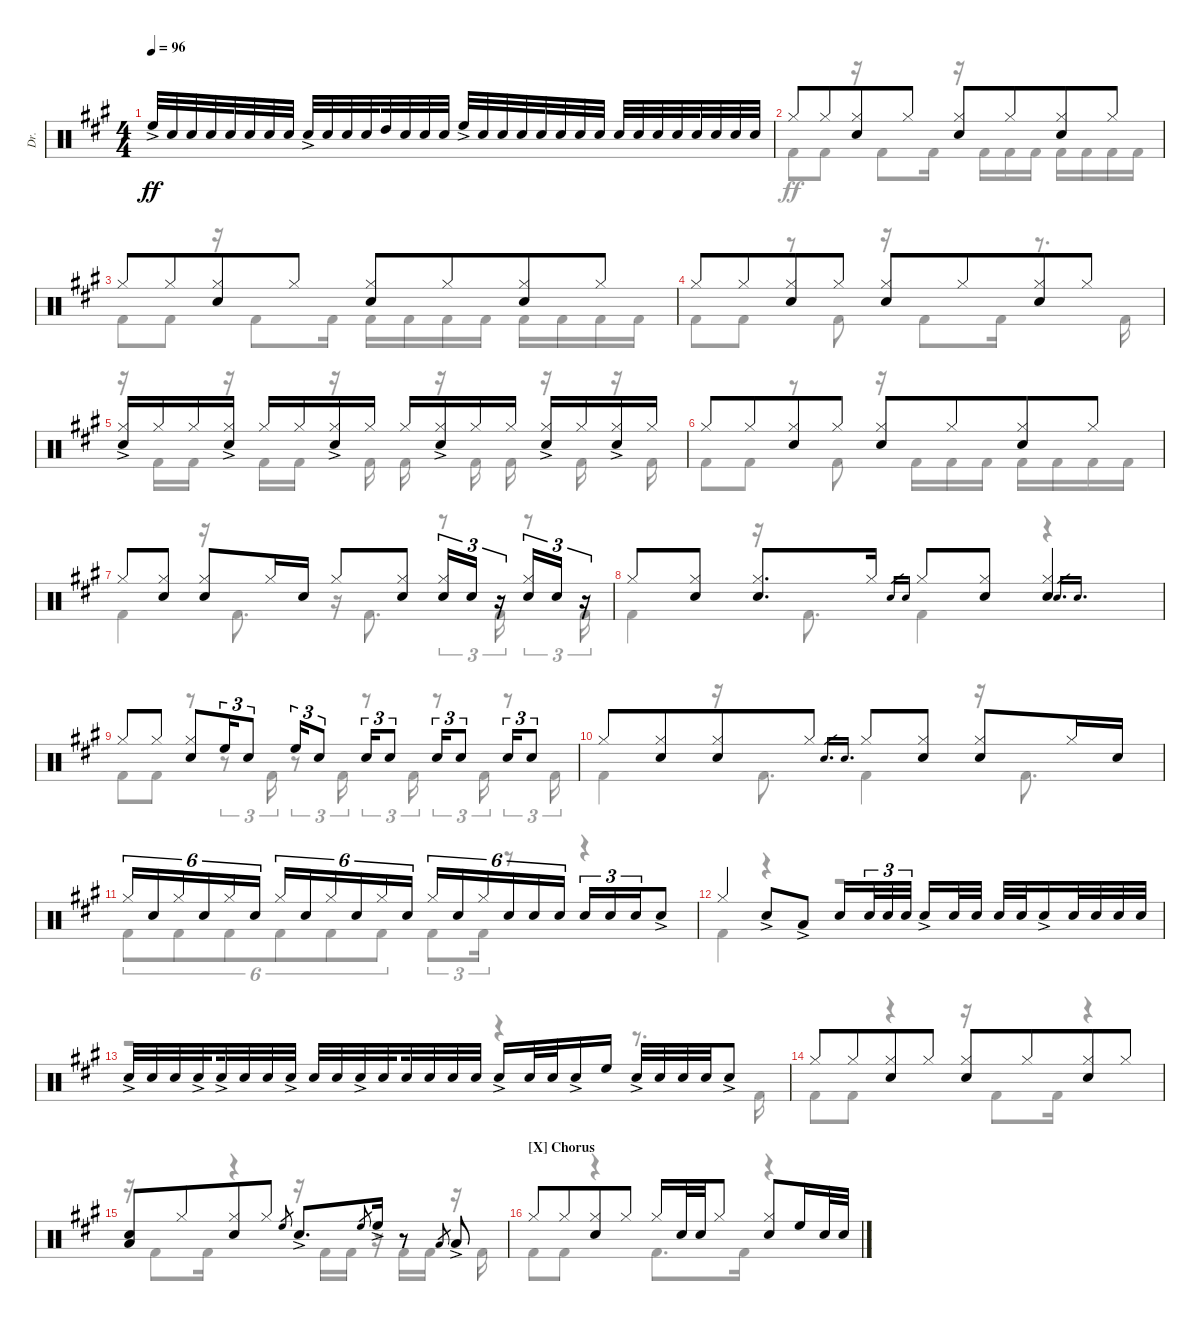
\defaultSystemsLayout 4
\bracketExtendMode groupsimilarinstruments
\otherSystemsTrackNameOrientation horizontal
\track ("Drums" "Dr.") {instrument percussion}
\staff {score}
\articulation defaults
\voice
\ts (4 4)
\tempo 96
\clef neutral
\ks a "High Floor Tom (hit)"{ac acc forcenatural}.32{dy ff beam invert} "Snare (hit) 2"{acc forcenatural}.32 "Snare (hit) 2"{acc forcenatural}.32 "Snare (hit) 2"{acc forcenatural}.32{beam splitsecondary} "Snare (hit) 2"{acc forcenatural}.32 "Snare (hit) 2"{acc forcenatural}.32 "Snare (hit) 2"{acc forcenatural}.32 "Snare (hit) 2"{acc forcenatural}.32 "Snare (hit) 2"{ac acc forcenatural}.32{beam invert} "Snare (hit) 2"{acc forcenatural}.32 "Snare (hit) 2"{acc forcenatural}.32 "Snare (hit) 2"{acc forcenatural}.32{beam splitsecondary} "High Tom (hit)"{acc forcenatural}.32 "Snare (hit) 2"{acc forcenatural}.32 "Snare (hit) 2"{acc forcenatural}.32 "Snare (hit) 2"{acc forcenatural}.32 "High Floor Tom (hit)"{ac acc forcenatural}.32{beam invert} "Snare (hit) 2"{acc forcenatural}.32 "Snare (hit) 2"{acc forcenatural}.32 "Snare (hit) 2"{acc forcenatural}.32{beam splitsecondary} "Snare (hit) 2"{acc forcenatural}.32 "Snare (hit) 2"{acc forcenatural}.32 "Snare (hit) 2"{acc forcenatural}.32 "Snare (hit) 2"{acc forcenatural}.32 "Snare (hit) 2"{acc forcenatural}.32{beam invert} "Snare (hit) 2"{acc forcenatural}.32 "Snare (hit) 2"{acc forcenatural}.32 "Snare (hit) 2"{acc forcenatural}.32{beam splitsecondary} "Snare (hit) 2"{acc forcenatural}.32 "Snare (hit) 2"{acc forcenatural}.32 "Snare (hit) 2"{acc forcenatural}.32 "Snare (hit) 2"{acc forcenatural}.32
|
"Hi-Hat (closed)"{acc forcenatural}.8 "Hi-Hat (closed)"{acc forcenatural}.8{beam merge} ("Hi-Hat (closed)"{acc forcenatural} "Snare (hit) 2"{acc forcenatural}).8 "Hi-Hat (closed)"{acc forcenatural}.8 ("Hi-Hat (closed)"{acc forcenatural} "Snare (hit) 2"{acc forcenatural}).8 "Hi-Hat (closed)"{acc forcenatural}.8{beam merge} ("Hi-Hat (closed)"{acc forcenatural} "Snare (hit) 2"{acc forcenatural}).8 "Hi-Hat (closed)"{acc forcenatural}.8 |
"Hi-Hat (closed)"{acc forcenatural}.8 "Hi-Hat (closed)"{acc forcenatural}.8{beam merge} ("Hi-Hat (closed)"{acc forcenatural} "Snare (hit) 2"{acc forcenatural}).8 "Hi-Hat (closed)"{acc forcenatural}.8 ("Hi-Hat (closed)"{acc forcenatural} "Snare (hit) 2"{acc forcenatural}).8 "Hi-Hat (closed)"{acc forcenatural}.8{beam merge} ("Hi-Hat (closed)"{acc forcenatural} "Snare (hit) 2"{acc forcenatural}).8 "Hi-Hat (closed)"{acc forcenatural}.8 |
"Hi-Hat (closed)"{acc forcenatural}.8 "Hi-Hat (closed)"{acc forcenatural}.8{beam merge} ("Hi-Hat (closed)"{acc forcenatural} "Snare (hit) 2"{acc forcenatural}).8 "Hi-Hat (closed)"{acc forcenatural}.8 ("Hi-Hat (closed)"{acc forcenatural} "Snare (hit) 2"{acc forcenatural}).8 "Hi-Hat (closed)"{acc forcenatural}.8{beam merge} ("Hi-Hat (closed)"{acc forcenatural} "Snare (hit) 2"{acc forcenatural}).8 "Hi-Hat (closed)"{acc forcenatural}.8 |
("Snare (hit) 2"{ac acc forcenatural} "Hi-Hat (closed)"{acc forcenatural}).16 "Hi-Hat (closed)"{acc forcenatural}.16 "Hi-Hat (closed)"{acc forcenatural}.16 ("Hi-Hat (closed)"{acc forcenatural} "Snare (hit) 2"{ac acc forcenatural}).16 "Hi-Hat (closed)"{acc forcenatural}.16 "Hi-Hat (closed)"{acc forcenatural}.16 ("Hi-Hat (closed)"{acc forcenatural} "Snare (hit) 2"{ac acc forcenatural}).16 "Hi-Hat (closed)"{acc forcenatural}.16 "Hi-Hat (closed)"{acc forcenatural}.16 ("Hi-Hat (closed)"{acc forcenatural} "Snare (hit) 2"{ac acc forcenatural}).16 "Hi-Hat (closed)"{acc forcenatural}.16 "Hi-Hat (closed)"{acc forcenatural}.16 ("Hi-Hat (closed)"{acc forcenatural} "Snare (hit) 2"{ac acc forcenatural}).16 "Hi-Hat (closed)"{acc forcenatural}.16 ("Hi-Hat (closed)"{acc forcenatural} "Snare (hit) 2"{ac acc forcenatural}).16 "Hi-Hat (closed)"{acc forcenatural}.16 |
"Hi-Hat (closed)"{acc forcenatural}.8 "Hi-Hat (closed)"{acc forcenatural}.8{beam merge} ("Hi-Hat (closed)"{acc forcenatural} "Snare (hit) 2"{acc forcenatural}).8 "Hi-Hat (closed)"{acc forcenatural}.8 ("Hi-Hat (closed)"{acc forcenatural} "Snare (hit) 2"{acc forcenatural}).8 "Hi-Hat (closed)"{acc forcenatural}.8{beam merge} ("Hi-Hat (closed)"{acc forcenatural} "Snare (hit) 2"{acc forcenatural}).8 "Hi-Hat (closed)"{acc forcenatural}.8 |
"Hi-Hat (closed)"{acc forcenatural}.8{beam merge} ("Hi-Hat (closed)"{acc forcenatural} "Snare (hit) 2"{acc forcenatural}).8 ("Hi-Hat (closed)"{acc forcenatural} "Snare (hit) 2"{acc forcenatural}).8 "Hi-Hat (closed)"{acc forcenatural}.16 "Snare (hit) 2"{acc forcenatural}.16 "Hi-Hat (closed)"{acc forcenatural}.8{beam merge} ("Hi-Hat (closed)"{acc forcenatural} "Snare (hit) 2"{acc forcenatural}).8 ("Hi-Hat (closed)"{acc forcenatural} "Snare (hit) 2"{acc forcenatural}).16{tu (3 2)} "Snare (hit) 2"{acc forcenatural}.16{tu (3 2)} r.16{tu (3 2)} ("Hi-Hat (closed)"{acc forcenatural} "Snare (hit) 2"{acc forcenatural}).16{tu (3 2)} "Snare (hit) 2"{acc forcenatural}.16{tu (3 2)} r.16{tu (3 2)} |
"Hi-Hat (closed)"{acc forcenatural}.8 ("Hi-Hat (closed)"{acc forcenatural} "Snare (hit) 2"{acc forcenatural}).8 ("Hi-Hat (closed)"{acc forcenatural} "Snare (hit) 2"{acc forcenatural}).8{d} "Hi-Hat (closed)"{acc forcenatural}.16 "Snare (hit) 2"{acc forcenatural}.16{gr} "Snare (hit) 2"{acc forcenatural}.16{gr} "Hi-Hat (closed)"{acc forcenatural}.8 ("Hi-Hat (closed)"{acc forcenatural} "Snare (hit) 2"{acc forcenatural}).8 ("Hi-Hat (closed)"{acc forcenatural} "Snare (hit) 2"{acc forcenatural}).4 "Snare (hit) 2"{acc forcenatural}.16{d gr} "Snare (hit) 2"{acc forcenatural}.16{d gr} |
"Hi-Hat (closed)"{acc forcenatural}.8 "Hi-Hat (closed)"{acc forcenatural}.8 ("Hi-Hat (closed)"{acc forcenatural} "Snare (hit) 2"{acc forcenatural}).8{beam merge} "High Floor Tom (hit)"{acc forcenatural}.16{tu (3 2)} "Snare (hit) 2"{acc forcenatural}.8{tu (3 2)} "High Floor Tom (hit)"{acc forcenatural}.16{tu (3 2)} "Snare (hit) 2"{acc forcenatural}.8{tu (3 2)} "Snare (hit) 2"{acc forcenatural}.16{tu (3 2)} "Snare (hit) 2"{acc forcenatural}.8{tu (3 2)} "Snare (hit) 2"{acc forcenatural}.16{tu (3 2)} "Snare (hit) 2"{acc forcenatural}.8{tu (3 2)} "Snare (hit) 2"{acc forcenatural}.16{tu (3 2)} "Snare (hit) 2"{acc forcenatural}.8{tu (3 2)} |
"Hi-Hat (closed)"{acc forcenatural}.8 ("Hi-Hat (closed)"{acc forcenatural} "Snare (hit) 2"{acc forcenatural}).8{beam merge} ("Hi-Hat (closed)"{acc forcenatural} "Snare (hit) 2"{acc forcenatural}).8 "Hi-Hat (closed)"{acc forcenatural}.8 "Snare (hit) 2"{acc forcenatural}.16{d gr} "Snare (hit) 2"{acc forcenatural}.16{d gr} "Hi-Hat (closed)"{acc forcenatural}.8 ("Hi-Hat (closed)"{acc forcenatural} "Snare (hit) 2"{acc forcenatural}).8 ("Hi-Hat (closed)"{acc forcenatural} "Snare (hit) 2"{acc forcenatural}).8 "Hi-Hat (closed)"{acc forcenatural}.16 "Snare (hit) 2"{acc forcenatural}.16 |
"Hi-Hat (closed)"{acc forcenatural}.16{tu (6 4)} "Snare (hit) 2"{acc forcenatural}.16{tu (6 4)} "Hi-Hat (closed)"{acc forcenatural}.16{tu (6 4)} "Snare (hit) 2"{acc forcenatural}.16{tu (6 4)} "Hi-Hat (closed)"{acc forcenatural}.16{tu (6 4)} "Snare (hit) 2"{acc forcenatural}.16{tu (6 4)} "Hi-Hat (closed)"{acc forcenatural}.16{tu (6 4)} "Snare (hit) 2"{acc forcenatural}.16{tu (6 4)} "Hi-Hat (closed)"{acc forcenatural}.16{tu (6 4)} "Snare (hit) 2"{acc forcenatural}.16{tu (6 4)} "Hi-Hat (closed)"{acc forcenatural}.16{tu (6 4)} "Snare (hit) 2"{acc forcenatural}.16{tu (6 4)} "Hi-Hat (closed)"{acc forcenatural}.16{tu (6 4)} "Snare (hit) 2"{acc forcenatural}.16{tu (6 4)} "Hi-Hat (closed)"{acc forcenatural}.16{tu (6 4)} "Snare (hit) 2"{acc forcenatural}.16{tu (6 4)} "Snare (hit) 2"{acc forcenatural}.16{tu (6 4)} "Snare (hit) 2"{acc forcenatural}.16{tu (6 4)} "Snare (hit) 2"{acc forcenatural}.16{tu (3 2)} "Snare (hit) 2"{acc forcenatural}.16{tu (3 2)} "Snare (hit) 2"{acc forcenatural}.16{tu (3 2) beam merge} "Snare (hit) 2"{ac acc forcenatural}.8 |
"Hi-Hat (closed)"{acc forcenatural}.4 "Snare (hit) 2"{ac acc forcenatural}.8 "Low Tom (hit)"{ac acc forcenatural}.8 "Snare (hit) 2"{acc forcenatural}.16{beam merge} "Snare (hit) 2"{acc forcenatural}.32{tu (3 2)} "Snare (hit) 2"{acc forcenatural}.32{tu (3 2)} "Snare (hit) 2"{acc forcenatural}.32{tu (3 2)} "Snare (hit) 2"{ac acc forcenatural}.16 "Snare (hit) 2"{acc forcenatural}.32 "Snare (hit) 2"{acc forcenatural}.32 "Snare (hit) 2"{acc forcenatural}.32 "Snare (hit) 2"{acc forcenatural}.32 "Snare (hit) 2"{ac acc forcenatural}.16 "Snare (hit) 2"{acc forcenatural}.32 "Snare (hit) 2"{acc forcenatural}.32 "Snare (hit) 2"{acc forcenatural}.32 "Snare (hit) 2"{acc forcenatural}.32 |
"Snare (hit) 2"{ac acc forcenatural}.32 "Snare (hit) 2"{acc forcenatural}.32 "Snare (hit) 2"{acc forcenatural}.32 "Snare (hit) 2"{ac acc forcenatural}.32{beam splitsecondary} "Snare (hit) 2"{ac acc forcenatural}.32 "Snare (hit) 2"{acc forcenatural}.32 "Snare (hit) 2"{acc forcenatural}.32 "Snare (hit) 2"{ac acc forcenatural}.32 "Snare (hit) 2"{acc forcenatural}.32 "Snare (hit) 2"{acc forcenatural}.32 "Snare (hit) 2"{ac acc forcenatural}.32 "Snare (hit) 2"{acc forcenatural}.32{beam splitsecondary} "Snare (hit) 2"{acc forcenatural}.32 "Snare (hit) 2"{acc forcenatural}.32 "Snare (hit) 2"{acc forcenatural}.32 "Snare (hit) 2"{acc forcenatural}.32 "Snare (hit) 2"{ac acc forcenatural}.16 "Snare (hit) 2"{acc forcenatural}.32 "Snare (hit) 2"{acc forcenatural}.32 "Snare (hit) 2"{ac acc forcenatural}.16 "High Floor Tom (hit)"{acc forcenatural}.16 "Snare (hit) 2"{ac acc forcenatural}.32 "Snare (hit) 2"{acc forcenatural}.32 "Snare (hit) 2"{acc forcenatural}.32 "Snare (hit) 2"{acc forcenatural}.32 "Snare (hit) 2"{ac acc forcenatural}.8 |
"Hi-Hat (closed)"{acc forcenatural}.8 "Hi-Hat (closed)"{acc forcenatural}.8{beam merge} ("Hi-Hat (closed)"{acc forcenatural} "Snare (hit) 2"{acc forcenatural}).8 "Hi-Hat (closed)"{acc forcenatural}.8 ("Hi-Hat (closed)"{acc forcenatural} "Snare (hit) 2"{acc forcenatural}).8 "Hi-Hat (closed)"{acc forcenatural}.8{beam merge} ("Hi-Hat (closed)"{acc forcenatural} "Snare (hit) 2"{acc forcenatural}).8 "Hi-Hat (closed)"{acc forcenatural}.8 |
("Snare (hit) 2"{acc forcenatural} "Low Tom (hit)"{acc forcenatural}).8 "Hi-Hat (closed)"{acc forcenatural}.8{beam merge} ("Hi-Hat (closed)"{acc forcenatural} "Snare (hit) 2"{acc forcenatural}).8 "Hi-Hat (closed)"{acc forcenatural}.8 "High Floor Tom (hit)"{acc forcenatural}.8{gr} "Snare (hit) 2"{ac acc forcenatural}.8{d} "High Floor Tom (hit)"{acc forcenatural}.8{gr} "High Floor Tom (hit)"{ac acc forcenatural}.16 r.8 "Low Tom (hit)"{acc forcenatural}.8{gr} "Low Tom (hit)"{ac acc forcenatural}.8 |
\section ("X" "Chorus")
"Hi-Hat (closed)"{acc forcenatural}.8 "Hi-Hat (closed)"{acc forcenatural}.8{beam merge} ("Hi-Hat (closed)"{acc forcenatural} "Snare (hit) 2"{acc forcenatural}).8 "Hi-Hat (closed)"{acc forcenatural}.8 "Hi-Hat (closed)"{acc forcenatural}.16 "Snare (hit) 2"{acc forcenatural}.32 "Snare (hit) 2"{acc forcenatural}.32 "Hi-Hat (closed)"{acc forcenatural}.8 ("Hi-Hat (closed)"{acc forcenatural} "Snare (hit) 2"{acc forcenatural}).8 "High Floor Tom (hit)"{acc forcenatural}.16 "Snare (hit) 2"{acc forcenatural}.32 "Snare (hit) 2"{acc forcenatural}.32
\voice
\clef neutral
\ottava regular
\simile none
\ks a
|
"Kick (hit) 2"{acc forcenatural}.8 "Kick (hit) 2"{acc forcenatural}.8 r.16 "Kick (hit) 2"{acc forcenatural}.8 "Kick (hit) 2"{acc forcenatural}.16 r.16 "Kick (hit) 2"{acc forcenatural}.16 "Kick (hit) 2"{acc forcenatural}.16 "Kick (hit) 2"{acc forcenatural}.16 "Kick (hit) 2"{acc forcenatural}.16 "Kick (hit) 2"{acc forcenatural}.16 "Kick (hit) 2"{acc forcenatural}.16 "Kick (hit) 2"{acc forcenatural}.16 |
"Kick (hit) 2"{acc forcenatural}.8 "Kick (hit) 2"{acc forcenatural}.8 r.16 "Kick (hit) 2"{acc forcenatural}.8 "Kick (hit) 2"{acc forcenatural}.16 "Kick (hit) 2"{acc forcenatural}.16 "Kick (hit) 2"{acc forcenatural}.16 "Kick (hit) 2"{acc forcenatural}.16 "Kick (hit) 2"{acc forcenatural}.16 "Kick (hit) 2"{acc forcenatural}.16 "Kick (hit) 2"{acc forcenatural}.16 "Kick (hit) 2"{acc forcenatural}.16 "Kick (hit) 2"{acc forcenatural}.16 |
"Kick (hit) 2"{acc forcenatural}.8 "Kick (hit) 2"{acc forcenatural}.8 r.8 "Kick (hit) 2"{acc forcenatural}.8 r.16 "Kick (hit) 2"{acc forcenatural}.8 "Kick (hit) 2"{acc forcenatural}.16 r.8{d} "Kick (hit) 2"{acc forcenatural}.16 |
r.16 "Kick (hit) 2"{acc forcenatural}.16 "Kick (hit) 2"{acc forcenatural}.16 r.16 "Kick (hit) 2"{acc forcenatural}.16 "Kick (hit) 2"{acc forcenatural}.16{beam split} r.16{beam split} "Kick (hit) 2"{acc forcenatural}.16{beam split} "Kick (hit) 2"{acc forcenatural}.16{beam split} r.16{beam split} "Kick (hit) 2"{acc forcenatural}.16{beam split} "Kick (hit) 2"{acc forcenatural}.16{beam split} r.16{beam split} "Kick (hit) 2"{acc forcenatural}.16{beam split} r.16{beam split} "Kick (hit) 2"{acc forcenatural}.16{beam split} |
"Kick (hit) 2"{acc forcenatural}.8 "Kick (hit) 2"{acc forcenatural}.8 r.8 "Kick (hit) 2"{acc forcenatural}.8 r.16 "Kick (hit) 2"{acc forcenatural}.16 "Kick (hit) 2"{acc forcenatural}.16 "Kick (hit) 2"{acc forcenatural}.16 "Kick (hit) 2"{acc forcenatural}.16 "Kick (hit) 2"{acc forcenatural}.16 "Kick (hit) 2"{acc forcenatural}.16 "Kick (hit) 2"{acc forcenatural}.16 |
"Kick (hit) 2"{acc forcenatural}.4 r.16 "Kick (hit) 2"{acc forcenatural}.8{d} r.16 "Kick (hit) 2"{acc forcenatural}.8{d} r.8{tu (3 2)} "Kick (hit) 2"{acc forcenatural}.16{tu (3 2)} r.8{tu (3 2)} "Kick (hit) 2"{acc forcenatural}.16{tu (3 2)} |
"Kick (hit) 2"{acc forcenatural}.4 r.16 "Kick (hit) 2"{acc forcenatural}.8{d} "Kick (hit) 2"{acc forcenatural}.4 r.4 |
"Kick (hit) 2"{acc forcenatural}.8 "Kick (hit) 2"{acc forcenatural}.8 r.8 r.8{tu (3 2)} "Kick (hit) 2"{acc forcenatural}.16{tu (3 2)} r.8{tu (3 2)} "Kick (hit) 2"{acc forcenatural}.16{tu (3 2)} r.8{tu (3 2)} "Kick (hit) 2"{acc forcenatural}.16{tu (3 2)} r.8{tu (3 2)} "Kick (hit) 2"{acc forcenatural}.16{tu (3 2)} r.8{tu (3 2)} "Kick (hit) 2"{acc forcenatural}.16{tu (3 2)} |
"Kick (hit) 2"{acc forcenatural}.4 r.16 "Kick (hit) 2"{acc forcenatural}.8{d} "Kick (hit) 2"{acc forcenatural}.4 r.16 "Kick (hit) 2"{acc forcenatural}.8{d} |
"Kick (hit) 2"{acc forcenatural}.8{tu (6 4)} "Kick (hit) 2"{acc forcenatural}.8{tu (6 4)} "Kick (hit) 2"{acc forcenatural}.8{tu (6 4)} "Kick (hit) 2"{acc forcenatural}.8{tu (6 4)} "Kick (hit) 2"{acc forcenatural}.8{tu (6 4)} "Kick (hit) 2"{acc forcenatural}.8{tu (6 4)} "Kick (hit) 2"{acc forcenatural}.8{tu (3 2)} "Kick (hit) 2"{acc forcenatural}.16{tu (3 2)} r.8 r.4 |
"Kick (hit) 2"{acc forcenatural}.4 r.4 r.2 |
r.2 r.4 r.8{d} "Kick (hit) 2"{acc forcenatural}.16 |
"Kick (hit) 2"{acc forcenatural}.8 "Kick (hit) 2"{acc forcenatural}.8 r.4 r.16 "Kick (hit) 2"{acc forcenatural}.8 "Kick (hit) 2"{acc forcenatural}.16 r.4 |
r.16 "Kick (hit) 2"{acc forcenatural}.8 "Kick (hit) 2"{acc forcenatural}.16 r.4 r.16 "Kick (hit) 2"{acc forcenatural}.16 "Kick (hit) 2"{acc forcenatural}.16 r.16 "Kick (hit) 2"{acc forcenatural}.16 "Kick (hit) 2"{acc forcenatural}.16{beam split} r.16{beam split} "Kick (hit) 2"{acc forcenatural}.16{beam split} |
"Kick (hit) 2"{acc forcenatural}.8 "Kick (hit) 2"{acc forcenatural}.8 r.4 "Kick (hit) 2"{acc forcenatural}.8{d} "Kick (hit) 2"{acc forcenatural}.16 r.4
